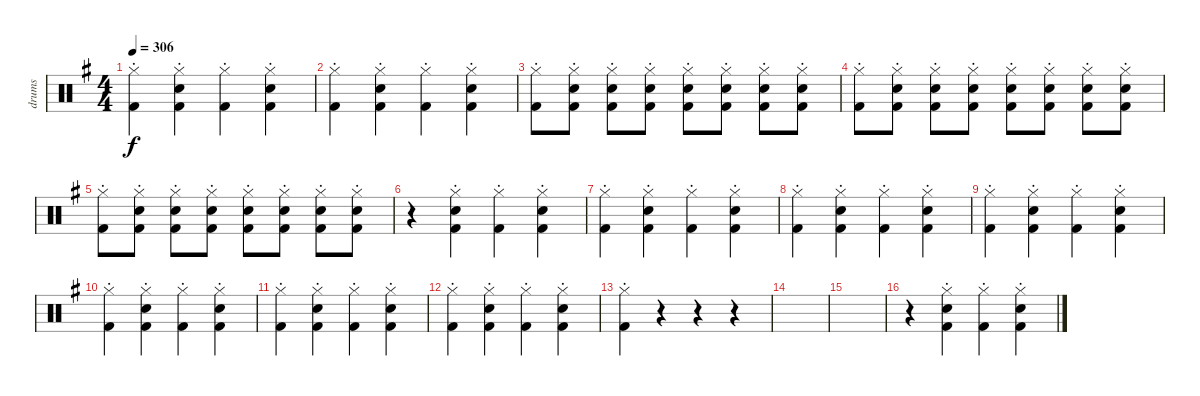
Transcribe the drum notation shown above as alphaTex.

\track ("drums" "drums") {instrument percussion}
\staff {score}
\articulation defaults
\ts (4 4)
\tempo 306
\clef neutral
\ks g
("Hi-Hat (closed)"{st} "Kick (hit) 2").4{dy f} ("Hi-Hat (closed)"{st} "Electric Snare (hit)" "Kick (hit) 2").4 ("Hi-Hat (closed)"{st} "Kick (hit) 2").4 ("Hi-Hat (closed)"{st} "Electric Snare (hit)" "Kick (hit) 2").4 |
("Hi-Hat (closed)"{st} "Kick (hit) 2").4 ("Hi-Hat (closed)"{st} "Electric Snare (hit)" "Kick (hit) 2").4 ("Hi-Hat (closed)"{st} "Kick (hit) 2").4 ("Hi-Hat (closed)"{st} "Electric Snare (hit)" "Kick (hit) 2").4 |
("Hi-Hat (closed)"{st} "Kick (hit) 2").8 ("Hi-Hat (closed)"{st} "Electric Snare (hit)" "Kick (hit) 2").8 ("Hi-Hat (closed)"{st} "Electric Snare (hit)" "Kick (hit) 2").8 ("Hi-Hat (closed)"{st} "Electric Snare (hit)" "Kick (hit) 2").8 ("Hi-Hat (closed)"{st} "Electric Snare (hit)" "Kick (hit) 2").8 ("Hi-Hat (closed)"{st} "Electric Snare (hit)" "Kick (hit) 2").8 ("Hi-Hat (closed)"{st} "Electric Snare (hit)" "Kick (hit) 2").8 ("Hi-Hat (closed)"{st} "Electric Snare (hit)" "Kick (hit) 2").8 |
("Hi-Hat (closed)"{st} "Kick (hit) 2").8 ("Hi-Hat (closed)"{st} "Electric Snare (hit)" "Kick (hit) 2").8 ("Hi-Hat (closed)"{st} "Electric Snare (hit)" "Kick (hit) 2").8 ("Hi-Hat (closed)"{st} "Electric Snare (hit)" "Kick (hit) 2").8 ("Hi-Hat (closed)"{st} "Electric Snare (hit)" "Kick (hit) 2").8 ("Hi-Hat (closed)"{st} "Electric Snare (hit)" "Kick (hit) 2").8 ("Hi-Hat (closed)"{st} "Electric Snare (hit)" "Kick (hit) 2").8 ("Hi-Hat (closed)"{st} "Electric Snare (hit)" "Kick (hit) 2").8 |
("Hi-Hat (closed)"{st} "Kick (hit) 2").8 ("Hi-Hat (closed)"{st} "Electric Snare (hit)" "Kick (hit) 2").8 ("Hi-Hat (closed)"{st} "Electric Snare (hit)" "Kick (hit) 2").8 ("Hi-Hat (closed)"{st} "Electric Snare (hit)" "Kick (hit) 2").8 ("Hi-Hat (closed)"{st} "Electric Snare (hit)" "Kick (hit) 2").8 ("Hi-Hat (closed)"{st} "Electric Snare (hit)" "Kick (hit) 2").8 ("Hi-Hat (closed)"{st} "Electric Snare (hit)" "Kick (hit) 2").8 ("Hi-Hat (closed)"{st} "Electric Snare (hit)" "Kick (hit) 2").8 |
r.4 ("Hi-Hat (closed)"{st} "Electric Snare (hit)" "Kick (hit) 2").4 ("Hi-Hat (closed)"{st} "Kick (hit) 2").4 ("Hi-Hat (closed)"{st} "Electric Snare (hit)" "Kick (hit) 2").4 |
("Hi-Hat (closed)"{st} "Kick (hit) 2").4 ("Hi-Hat (closed)"{st} "Electric Snare (hit)" "Kick (hit) 2").4 ("Hi-Hat (closed)"{st} "Kick (hit) 2").4 ("Hi-Hat (closed)"{st} "Electric Snare (hit)" "Kick (hit) 2").4 |
("Hi-Hat (closed)"{st} "Kick (hit) 2").4 ("Hi-Hat (closed)"{st} "Electric Snare (hit)" "Kick (hit) 2").4 ("Hi-Hat (closed)"{st} "Kick (hit) 2").4 ("Hi-Hat (closed)"{st} "Electric Snare (hit)" "Kick (hit) 2").4 |
("Hi-Hat (closed)"{st} "Kick (hit) 2").4 ("Hi-Hat (closed)"{st} "Electric Snare (hit)" "Kick (hit) 2").4 ("Hi-Hat (closed)"{st} "Kick (hit) 2").4 ("Hi-Hat (closed)"{st} "Electric Snare (hit)" "Kick (hit) 2").4 |
("Hi-Hat (closed)"{st} "Kick (hit) 2").4 ("Hi-Hat (closed)"{st} "Electric Snare (hit)" "Kick (hit) 2").4 ("Hi-Hat (closed)"{st} "Kick (hit) 2").4 ("Hi-Hat (closed)"{st} "Electric Snare (hit)" "Kick (hit) 2").4 |
("Hi-Hat (closed)"{st} "Kick (hit) 2").4 ("Hi-Hat (closed)"{st} "Electric Snare (hit)" "Kick (hit) 2").4 ("Hi-Hat (closed)"{st} "Kick (hit) 2").4 ("Hi-Hat (closed)"{st} "Electric Snare (hit)" "Kick (hit) 2").4 |
("Hi-Hat (closed)"{st} "Kick (hit) 2").4 ("Hi-Hat (closed)"{st} "Electric Snare (hit)" "Kick (hit) 2").4 ("Hi-Hat (closed)"{st} "Kick (hit) 2").4 ("Hi-Hat (closed)"{st} "Electric Snare (hit)" "Kick (hit) 2").4 |
("Hi-Hat (closed)"{st} "Kick (hit) 2").4 r.4 r.4 r.4 |
|
|
r.4 ("Hi-Hat (closed)"{st} "Electric Snare (hit)" "Kick (hit) 2").4 ("Hi-Hat (closed)"{st} "Kick (hit) 2").4 ("Hi-Hat (closed)"{st} "Electric Snare (hit)" "Kick (hit) 2").4
